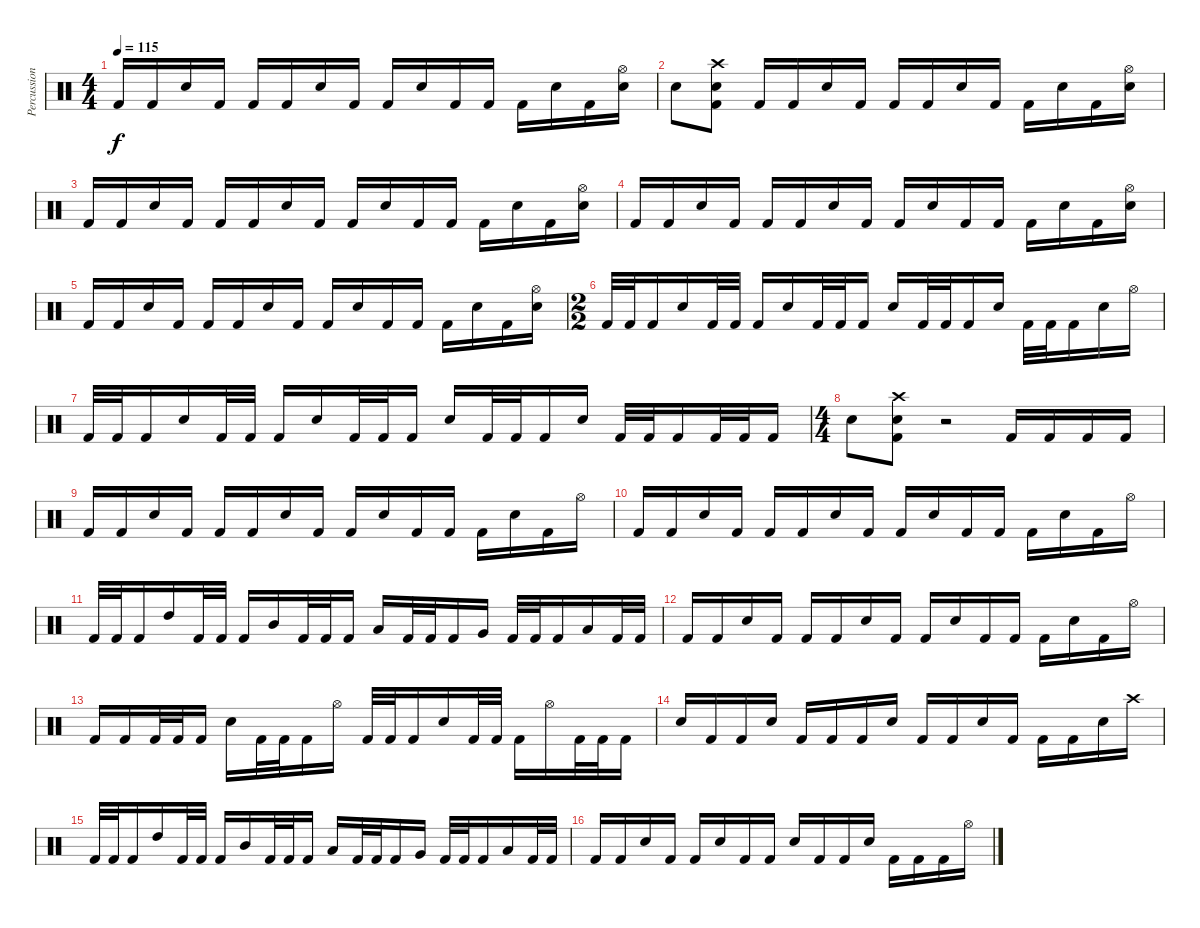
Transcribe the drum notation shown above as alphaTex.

\track ("Percussioni" "Percussion") {instrument percussion}
\staff {score}
\articulation defaults
\ts (4 4)
\tempo 115
\clef neutral
\ks c "Kick (hit) 2".16{dy f} "Kick (hit) 2".16 "Electric Snare (hit)".16 "Kick (hit) 2".16 "Kick (hit) 2".16 "Kick (hit) 2".16 "Electric Snare (hit)".16 "Kick (hit) 2".16 "Kick (hit) 2".16 "Electric Snare (hit)".16 "Kick (hit) 2".16 "Kick (hit) 2".16 "Kick (hit) 2".16 "Electric Snare (hit)".16 "Kick (hit) 2".16
("Hi-Hat (open)" "Electric Snare (hit)").16 |
"Electric Snare (hit)".8 ("Crash high (hit)" "Electric Snare (hit)" "Kick (hit) 2").8 "Kick (hit) 2".16 "Kick (hit) 2".16 "Electric Snare (hit)".16 "Kick (hit) 2".16 "Kick (hit) 2".16 "Kick (hit) 2".16 "Electric Snare (hit)".16 "Kick (hit) 2".16 "Kick (hit) 2".16 "Electric Snare (hit)".16 "Kick (hit) 2".16 ("Hi-Hat (open)" "Electric Snare (hit)").16 |
"Kick (hit) 2".16 "Kick (hit) 2".16 "Electric Snare (hit)".16 "Kick (hit) 2".16 "Kick (hit) 2".16 "Kick (hit) 2".16 "Electric Snare (hit)".16 "Kick (hit) 2".16 "Kick (hit) 2".16 "Electric Snare (hit)".16 "Kick (hit) 2".16 "Kick (hit) 2".16 "Kick (hit) 2".16 "Electric Snare (hit)".16 "Kick (hit) 2".16 ("Hi-Hat (open)" "Electric Snare (hit)").16 |
"Kick (hit) 2".16 "Kick (hit) 2".16 "Electric Snare (hit)".16 "Kick (hit) 2".16 "Kick (hit) 2".16 "Kick (hit) 2".16 "Electric Snare (hit)".16 "Kick (hit) 2".16 "Kick (hit) 2".16 "Electric Snare (hit)".16 "Kick (hit) 2".16 "Kick (hit) 2".16 "Kick (hit) 2".16 "Electric Snare (hit)".16 "Kick (hit) 2".16 ("Hi-Hat (open)" "Electric Snare (hit)").16 |
"Kick (hit) 2".16 "Kick (hit) 2".16 "Electric Snare (hit)".16 "Kick (hit) 2".16 "Kick (hit) 2".16 "Kick (hit) 2".16 "Electric Snare (hit)".16 "Kick (hit) 2".16 "Kick (hit) 2".16 "Electric Snare (hit)".16 "Kick (hit) 2".16 "Kick (hit) 2".16 "Kick (hit) 2".16 "Electric Snare (hit)".16 "Kick (hit) 2".16 ("Hi-Hat (open)" "Electric Snare (hit)").16 |
\ts (2 2)
"Kick (hit) 2".32 "Kick (hit) 2".32 "Kick (hit) 2".16 "Electric Snare (hit)".16 "Kick (hit) 2".32 "Kick (hit) 2".32 "Kick (hit) 2".16 "Electric Snare (hit)".16 "Kick (hit) 2".32 "Kick (hit) 2".32 "Kick (hit) 2".16 "Electric Snare (hit)".16 "Kick (hit) 2".32 "Kick (hit) 2".32 "Kick (hit) 2".16 "Electric Snare (hit)".16 "Kick (hit) 2".32 "Kick (hit) 2".32 "Kick (hit) 2".16 "Electric Snare (hit)".16 "Hi-Hat (open)".16 |
"Kick (hit) 2".32 "Kick (hit) 2".32 "Kick (hit) 2".16 "Electric Snare (hit)".16 "Kick (hit) 2".32 "Kick (hit) 2".32 "Kick (hit) 2".16 "Electric Snare (hit)".16 "Kick (hit) 2".32 "Kick (hit) 2".32 "Kick (hit) 2".16 "Electric Snare (hit)".16 "Kick (hit) 2".32 "Kick (hit) 2".32 "Kick (hit) 2".16 "Electric Snare (hit)".16 "Kick (hit) 2".32 "Kick (hit) 2".32 "Kick (hit) 2".16 "Kick (hit) 2".32 "Kick (hit) 2".32 "Kick (hit) 2".16 |
\ts (4 4)
"Electric Snare (hit)".8 ("Crash high (hit)" "Electric Snare (hit)" "Kick (hit) 2").8 r.2 "Kick (hit) 2".16 "Kick (hit) 2".16 "Kick (hit) 2".16 "Kick (hit) 2".16 |
"Kick (hit) 2".16 "Kick (hit) 2".16 "Electric Snare (hit)".16 "Kick (hit) 2".16 "Kick (hit) 2".16 "Kick (hit) 2".16 "Electric Snare (hit)".16 "Kick (hit) 2".16 "Kick (hit) 2".16 "Electric Snare (hit)".16 "Kick (hit) 2".16 "Kick (hit) 2".16 "Kick (hit) 2".16 "Electric Snare (hit)".16 "Kick (hit) 2".16 "Hi-Hat (open)".16 |
"Kick (hit) 2".16 "Kick (hit) 2".16 "Electric Snare (hit)".16 "Kick (hit) 2".16 "Kick (hit) 2".16 "Kick (hit) 2".16 "Electric Snare (hit)".16 "Kick (hit) 2".16 "Kick (hit) 2".16 "Electric Snare (hit)".16 "Kick (hit) 2".16 "Kick (hit) 2".16 "Kick (hit) 2".16 "Electric Snare (hit)".16 "Kick (hit) 2".16 "Hi-Hat (open)".16 |
"Kick (hit) 2".32 "Kick (hit) 2".32 "Kick (hit) 2".16 "High Tom (hit)".16 "Kick (hit) 2".32 "Kick (hit) 2".32 "Kick (hit) 2".16 "Mid Tom (hit)".16 "Kick (hit) 2".32 "Kick (hit) 2".32 "Kick (hit) 2".16 "Low Tom (hit)".16 "Kick (hit) 2".32 "Kick (hit) 2".32 "Kick (hit) 2".16 "Very Low Tom (hit)".16 "Kick (hit) 2".32 "Kick (hit) 2".32 "Kick (hit) 2".16 "Low Floor Tom (hit)".16 "Kick (hit) 2".32 "Kick (hit) 2".32 |
"Kick (hit) 2".16 "Kick (hit) 2".16 "Electric Snare (hit)".16 "Kick (hit) 2".16 "Kick (hit) 2".16 "Kick (hit) 2".16 "Electric Snare (hit)".16 "Kick (hit) 2".16 "Kick (hit) 2".16 "Electric Snare (hit)".16 "Kick (hit) 2".16 "Kick (hit) 2".16 "Kick (hit) 2".16 "Electric Snare (hit)".16 "Kick (hit) 2".16 "Hi-Hat (open)".16 |
"Kick (hit) 2".16 "Kick (hit) 2".16 "Kick (hit) 2".32 "Kick (hit) 2".32 "Kick (hit) 2".16 "Electric Snare (hit)".16 "Kick (hit) 2".32 "Kick (hit) 2".32 "Kick (hit) 2".16 "Hi-Hat (open)".16 "Kick (hit) 2".32 "Kick (hit) 2".32 "Kick (hit) 2".16 "Electric Snare (hit)".16 "Kick (hit) 2".32 "Kick (hit) 2".32 "Kick (hit) 2".16 "Hi-Hat (open)".16 "Kick (hit) 2".32 "Kick (hit) 2".32 "Kick (hit) 2".16 |
"Electric Snare (hit)".16 "Kick (hit) 2".16 "Kick (hit) 2".16 "Electric Snare (hit)".16 "Kick (hit) 2".16 "Kick (hit) 2".16 "Kick (hit) 2".16 "Electric Snare (hit)".16 "Kick (hit) 2".16 "Kick (hit) 2".16 "Electric Snare (hit)".16 "Kick (hit) 2".16 "Kick (hit) 2".16 "Kick (hit) 2".16 "Electric Snare (hit)".16 "Crash high (hit)".16 |
"Kick (hit) 2".32 "Kick (hit) 2".32 "Kick (hit) 2".16 "High Tom (hit)".16 "Kick (hit) 2".32 "Kick (hit) 2".32 "Kick (hit) 2".16 "Mid Tom (hit)".16 "Kick (hit) 2".32 "Kick (hit) 2".32 "Kick (hit) 2".16 "Low Tom (hit)".16 "Kick (hit) 2".32 "Kick (hit) 2".32 "Kick (hit) 2".16 "Very Low Tom (hit)".16 "Kick (hit) 2".32 "Kick (hit) 2".32 "Kick (hit) 2".16 "Low Floor Tom (hit)".16 "Kick (hit) 2".32 "Kick (hit) 2".32 |
"Kick (hit) 2".16 "Kick (hit) 2".16 "Electric Snare (hit)".16 "Kick (hit) 2".16 "Kick (hit) 2".16 "Electric Snare (hit)".16 "Kick (hit) 2".16 "Kick (hit) 2".16 "Electric Snare (hit)".16 "Kick (hit) 2".16 "Kick (hit) 2".16 "Electric Snare (hit)".16 "Kick (hit) 2".16 "Kick (hit) 2".16 "Kick (hit) 2".16 "Hi-Hat (open)".16
